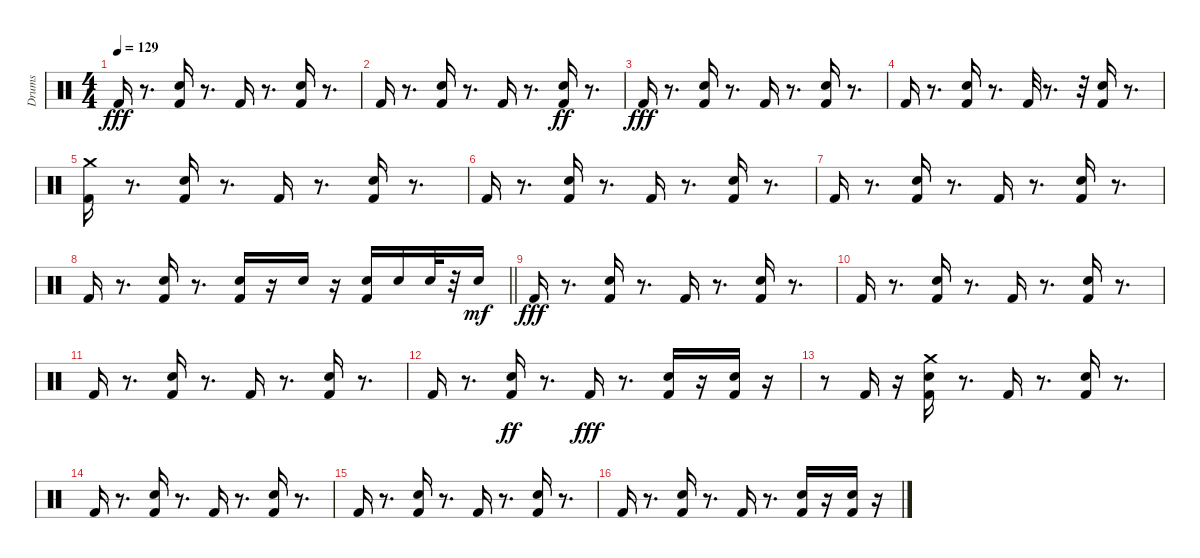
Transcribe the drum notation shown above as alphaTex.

\track ("Drums" "Drums") {instrument percussion}
\staff {score}
\articulation defaults
\ts (4 4)
\tempo 129
\clef neutral
\ks c "Kick (hit) 2".16{dy fff}
r.8{d} ("Kick (hit) 2" "Electric Snare (hit)").16 r.8{d} "Kick (hit) 2".16 r.8{d} ("Kick (hit) 2" "Electric Snare (hit)").16 r.8{d} |
"Kick (hit) 2".16 r.8{d} ("Kick (hit) 2" "Electric Snare (hit)").16 r.8{d} "Kick (hit) 2".16 r.8{d} ("Kick (hit) 2" "Electric Snare (hit)").16{dy ff} r.8{d} |
"Kick (hit) 2".16{dy fff} r.8{d} ("Kick (hit) 2" "Electric Snare (hit)").16 r.8{d} "Kick (hit) 2".16 r.8{d} ("Kick (hit) 2" "Electric Snare (hit)").16 r.8{d} |
"Kick (hit) 2".16 r.8{d} ("Kick (hit) 2" "Electric Snare (hit)").16 r.8{d} "Kick (hit) 2".32 r.8{d} r.32 ("Kick (hit) 2" "Electric Snare (hit)").16 r.8{d} |
("Crash medium (hit)" "Kick (hit) 2").16 r.8{d} ("Kick (hit) 2" "Electric Snare (hit)").16 r.8{d} "Kick (hit) 2".16 r.8{d} ("Kick (hit) 2" "Electric Snare (hit)").16 r.8{d} |
"Kick (hit) 2".16 r.8{d} ("Kick (hit) 2" "Electric Snare (hit)").16 r.8{d} "Kick (hit) 2".16 r.8{d} ("Kick (hit) 2" "Electric Snare (hit)").16 r.8{d} |
"Kick (hit) 2".16 r.8{d} ("Kick (hit) 2" "Electric Snare (hit)").16 r.8{d} "Kick (hit) 2".16 r.8{d} ("Kick (hit) 2" "Electric Snare (hit)").16 r.8{d} |
\barLineRight lightlight "Kick (hit) 2".16
r.8{d} ("Kick (hit) 2" "Electric Snare (hit)").16 r.8{d} ("Kick (hit) 2" "Electric Snare (hit)").16 r.16 "Electric Snare (hit)".16 r.16 ("Kick (hit) 2" "Electric Snare (hit)").16 "Electric Snare (hit)".16 "Electric Snare (hit)".32 r.32 "Electric Snare (hit)".16{dy mf} |
"Kick (hit) 2".16{dy fff} r.8{d} ("Kick (hit) 2" "Electric Snare (hit)").16 r.8{d} "Kick (hit) 2".16 r.8{d} ("Kick (hit) 2" "Electric Snare (hit)").16 r.8{d} |
"Kick (hit) 2".16 r.8{d} ("Kick (hit) 2" "Electric Snare (hit)").16 r.8{d} "Kick (hit) 2".16 r.8{d} ("Kick (hit) 2" "Electric Snare (hit)").16 r.8{d} |
"Kick (hit) 2".16 r.8{d} ("Kick (hit) 2" "Electric Snare (hit)").16 r.8{d} "Kick (hit) 2".16 r.8{d} ("Kick (hit) 2" "Electric Snare (hit)").16 r.8{d} |
"Kick (hit) 2".16 r.8{d} ("Kick (hit) 2" "Electric Snare (hit)").16{dy ff} r.8{d} "Kick (hit) 2".16{dy fff} r.8{d} ("Kick (hit) 2" "Electric Snare (hit)").16 r.16 ("Kick (hit) 2" "Electric Snare (hit)").16 r.16 |
r.8 "Kick (hit) 2".16 r.16 ("Crash medium (hit)" "Kick (hit) 2" "Electric Snare (hit)").16 r.8{d} "Kick (hit) 2".16 r.8{d} ("Kick (hit) 2" "Electric Snare (hit)").16 r.8{d} |
"Kick (hit) 2".16 r.8{d} ("Kick (hit) 2" "Electric Snare (hit)").16 r.8{d} "Kick (hit) 2".16 r.8{d} ("Kick (hit) 2" "Electric Snare (hit)").16 r.8{d} |
"Kick (hit) 2".16 r.8{d} ("Kick (hit) 2" "Electric Snare (hit)").16 r.8{d} "Kick (hit) 2".16 r.8{d} ("Kick (hit) 2" "Electric Snare (hit)").16 r.8{d} |
"Kick (hit) 2".16 r.8{d} ("Kick (hit) 2" "Electric Snare (hit)").16 r.8{d} "Kick (hit) 2".16 r.8{d} ("Kick (hit) 2" "Electric Snare (hit)").16 r.16 ("Kick (hit) 2" "Electric Snare (hit)").16 r.16
